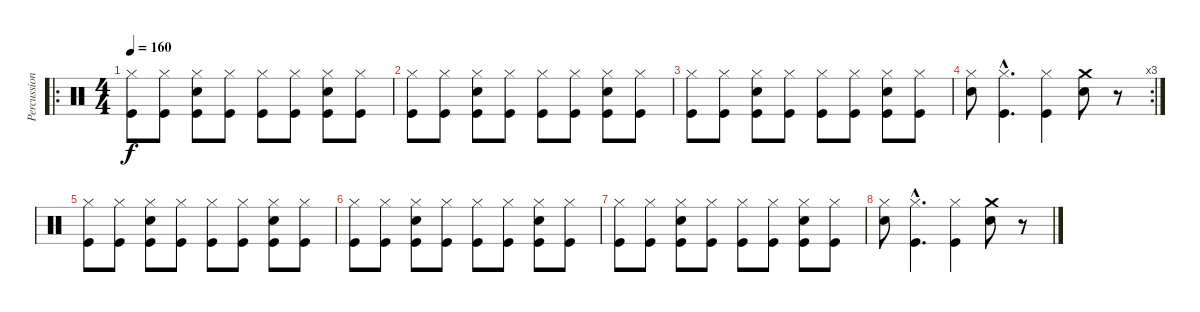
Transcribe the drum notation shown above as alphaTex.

\track ("Percussion" "Percussion") {instrument percussion}
\staff {score}
\articulation defaults
\ro
\ts (4 4)
\tempo 160
\clef neutral
\ks c
("Hi-Hat (closed)" "Kick (hit)").8{dy f} ("Hi-Hat (closed)" "Kick (hit)").8 ("Hi-Hat (closed)" "Snare (hit) 2" "Kick (hit)").8 ("Hi-Hat (closed)" "Kick (hit)").8 ("Hi-Hat (closed)" "Kick (hit)").8 ("Hi-Hat (closed)" "Kick (hit)").8 ("Hi-Hat (closed)" "Snare (hit) 2" "Kick (hit)").8 ("Hi-Hat (closed)" "Kick (hit)").8 |
("Hi-Hat (closed)" "Kick (hit)").8 ("Hi-Hat (closed)" "Kick (hit)").8 ("Hi-Hat (closed)" "Snare (hit) 2" "Kick (hit)").8 ("Hi-Hat (closed)" "Kick (hit)").8 ("Hi-Hat (closed)" "Kick (hit)").8 ("Hi-Hat (closed)" "Kick (hit)").8 ("Hi-Hat (closed)" "Snare (hit) 2" "Kick (hit)").8 ("Hi-Hat (closed)" "Kick (hit)").8 |
("Hi-Hat (closed)" "Kick (hit)").8 ("Hi-Hat (closed)" "Kick (hit)").8 ("Hi-Hat (closed)" "Snare (hit) 2" "Kick (hit)").8 ("Hi-Hat (closed)" "Kick (hit)").8 ("Hi-Hat (closed)" "Kick (hit)").8 ("Hi-Hat (closed)" "Kick (hit)").8 ("Hi-Hat (closed)" "Snare (hit) 2" "Kick (hit)").8 ("Hi-Hat (closed)" "Kick (hit)").8 |
\rc 3
("Hi-Hat (closed)" "Snare (hit) 2").8 ("Hi-Hat (closed)"{hac} "Kick (hit)"{hac}).4{d} ("Hi-Hat (closed)" "Kick (hit)").4 ("Crash medium (hit)" "Snare (hit) 2").8 r.8 |
("Hi-Hat (closed)" "Kick (hit)").8 ("Hi-Hat (closed)" "Kick (hit)").8 ("Hi-Hat (closed)" "Snare (hit) 2" "Kick (hit)").8 ("Hi-Hat (closed)" "Kick (hit)").8 ("Hi-Hat (closed)" "Kick (hit)").8 ("Hi-Hat (closed)" "Kick (hit)").8 ("Hi-Hat (closed)" "Snare (hit) 2" "Kick (hit)").8 ("Hi-Hat (closed)" "Kick (hit)").8 |
("Hi-Hat (closed)" "Kick (hit)").8 ("Hi-Hat (closed)" "Kick (hit)").8 ("Hi-Hat (closed)" "Snare (hit) 2" "Kick (hit)").8 ("Hi-Hat (closed)" "Kick (hit)").8 ("Hi-Hat (closed)" "Kick (hit)").8 ("Hi-Hat (closed)" "Kick (hit)").8 ("Hi-Hat (closed)" "Snare (hit) 2" "Kick (hit)").8 ("Hi-Hat (closed)" "Kick (hit)").8 |
("Hi-Hat (closed)" "Kick (hit)").8 ("Hi-Hat (closed)" "Kick (hit)").8 ("Hi-Hat (closed)" "Snare (hit) 2" "Kick (hit)").8 ("Hi-Hat (closed)" "Kick (hit)").8 ("Hi-Hat (closed)" "Kick (hit)").8 ("Hi-Hat (closed)" "Kick (hit)").8 ("Hi-Hat (closed)" "Snare (hit) 2" "Kick (hit)").8 ("Hi-Hat (closed)" "Kick (hit)").8 |
("Hi-Hat (closed)" "Snare (hit) 2").8 ("Hi-Hat (closed)"{hac} "Kick (hit)"{hac}).4{d} ("Hi-Hat (closed)" "Kick (hit)").4 ("Crash medium (hit)" "Snare (hit) 2").8 r.8
